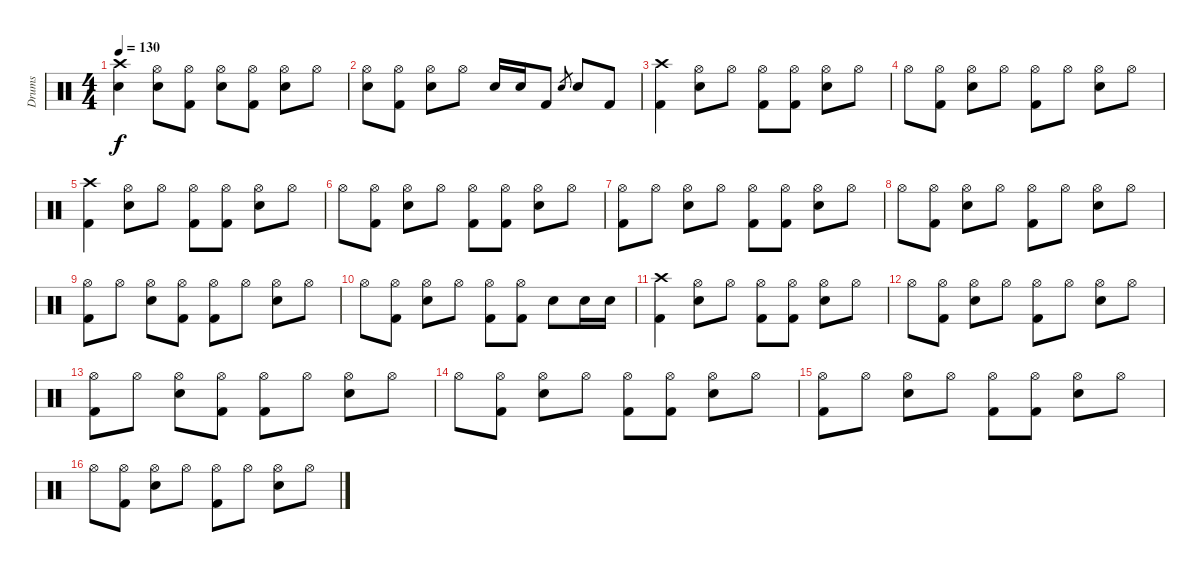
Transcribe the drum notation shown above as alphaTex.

\track ("Drums" "Drums") {instrument percussion}
\staff {score}
\articulation defaults
\ts (4 4)
\tempo 130
\clef neutral
\ks c
("Crash high (hit)" "Electric Snare (hit)").4{dy f} ("Hi-Hat (open)" "Electric Snare (hit)").8 ("Hi-Hat (open)" "Kick (hit) 2").8 ("Hi-Hat (open)" "Electric Snare (hit)").8 ("Hi-Hat (open)" "Kick (hit) 2").8 ("Hi-Hat (open)" "Electric Snare (hit)").8 "Hi-Hat (open)".8 |
("Hi-Hat (open)" "Electric Snare (hit)").8 ("Hi-Hat (open)" "Kick (hit) 2").8 ("Hi-Hat (open)" "Electric Snare (hit)").8 "Hi-Hat (open)".8 "Electric Snare (hit)".16 "Electric Snare (hit)".16 "Kick (hit) 2".8 "Electric Snare (hit)".8{gr} "Electric Snare (hit)".8 "Kick (hit) 2".8 |
("Crash high (hit)" "Kick (hit) 2").4 ("Hi-Hat (open)" "Electric Snare (hit)").8 "Hi-Hat (open)".8 ("Hi-Hat (open)" "Kick (hit) 2").8 ("Hi-Hat (open)" "Kick (hit) 2").8 ("Hi-Hat (open)" "Electric Snare (hit)").8 "Hi-Hat (open)".8 |
"Hi-Hat (open)".8 ("Hi-Hat (open)" "Kick (hit) 2").8 ("Hi-Hat (open)" "Electric Snare (hit)").8 "Hi-Hat (open)".8 ("Hi-Hat (open)" "Kick (hit) 2").8 "Hi-Hat (open)".8 ("Hi-Hat (open)" "Electric Snare (hit)").8 "Hi-Hat (open)".8 |
("Crash high (hit)" "Kick (hit) 2").4 ("Hi-Hat (open)" "Electric Snare (hit)").8 "Hi-Hat (open)".8 ("Hi-Hat (open)" "Kick (hit) 2").8 ("Hi-Hat (open)" "Kick (hit) 2").8 ("Hi-Hat (open)" "Electric Snare (hit)").8 "Hi-Hat (open)".8 |
"Hi-Hat (open)".8 ("Hi-Hat (open)" "Kick (hit) 2").8 ("Hi-Hat (open)" "Electric Snare (hit)").8 "Hi-Hat (open)".8 ("Hi-Hat (open)" "Kick (hit) 2").8 ("Hi-Hat (open)" "Kick (hit) 2").8 ("Hi-Hat (open)" "Electric Snare (hit)").8 "Hi-Hat (open)".8 |
("Hi-Hat (open)" "Kick (hit) 2").8 "Hi-Hat (open)".8 ("Hi-Hat (open)" "Electric Snare (hit)").8 "Hi-Hat (open)".8 ("Hi-Hat (open)" "Kick (hit) 2").8 ("Hi-Hat (open)" "Kick (hit) 2").8 ("Hi-Hat (open)" "Electric Snare (hit)").8 "Hi-Hat (open)".8 |
"Hi-Hat (open)".8 ("Hi-Hat (open)" "Kick (hit) 2").8 ("Hi-Hat (open)" "Electric Snare (hit)").8 "Hi-Hat (open)".8 ("Hi-Hat (open)" "Kick (hit) 2").8 "Hi-Hat (open)".8 ("Hi-Hat (open)" "Electric Snare (hit)").8 "Hi-Hat (open)".8 |
("Hi-Hat (open)" "Kick (hit) 2").8 "Hi-Hat (open)".8 ("Hi-Hat (open)" "Electric Snare (hit)").8 ("Hi-Hat (open)" "Kick (hit) 2").8 ("Hi-Hat (open)" "Kick (hit) 2").8 "Hi-Hat (open)".8 ("Hi-Hat (open)" "Electric Snare (hit)").8 "Hi-Hat (open)".8 |
"Hi-Hat (open)".8 ("Hi-Hat (open)" "Kick (hit) 2").8 ("Hi-Hat (open)" "Electric Snare (hit)").8 "Hi-Hat (open)".8 ("Hi-Hat (open)" "Kick (hit) 2").8 ("Hi-Hat (open)" "Kick (hit) 2").8 "Electric Snare (hit)".8 "Electric Snare (hit)".16 "Electric Snare (hit)".16 |
("Crash high (hit)" "Kick (hit) 2").4 ("Hi-Hat (open)" "Electric Snare (hit)").8 "Hi-Hat (open)".8 ("Hi-Hat (open)" "Kick (hit) 2").8 ("Hi-Hat (open)" "Kick (hit) 2").8 ("Hi-Hat (open)" "Electric Snare (hit)").8 "Hi-Hat (open)".8 |
"Hi-Hat (open)".8 ("Hi-Hat (open)" "Kick (hit) 2").8 ("Hi-Hat (open)" "Electric Snare (hit)").8 "Hi-Hat (open)".8 ("Hi-Hat (open)" "Kick (hit) 2").8 "Hi-Hat (open)".8 ("Hi-Hat (open)" "Electric Snare (hit)").8 "Hi-Hat (open)".8 |
("Hi-Hat (open)" "Kick (hit) 2").8 "Hi-Hat (open)".8 ("Hi-Hat (open)" "Electric Snare (hit)").8 ("Hi-Hat (open)" "Kick (hit) 2").8 ("Hi-Hat (open)" "Kick (hit) 2").8 "Hi-Hat (open)".8 ("Hi-Hat (open)" "Electric Snare (hit)").8 "Hi-Hat (open)".8 |
"Hi-Hat (open)".8 ("Hi-Hat (open)" "Kick (hit) 2").8 ("Hi-Hat (open)" "Electric Snare (hit)").8 "Hi-Hat (open)".8 ("Hi-Hat (open)" "Kick (hit) 2").8 ("Hi-Hat (open)" "Kick (hit) 2").8 ("Hi-Hat (open)" "Electric Snare (hit)").8 "Hi-Hat (open)".8 |
("Hi-Hat (open)" "Kick (hit) 2").8 "Hi-Hat (open)".8 ("Hi-Hat (open)" "Electric Snare (hit)").8 "Hi-Hat (open)".8 ("Hi-Hat (open)" "Kick (hit) 2").8 ("Hi-Hat (open)" "Kick (hit) 2").8 ("Hi-Hat (open)" "Electric Snare (hit)").8 "Hi-Hat (open)".8 |
"Hi-Hat (open)".8 ("Hi-Hat (open)" "Kick (hit) 2").8 ("Hi-Hat (open)" "Electric Snare (hit)").8 "Hi-Hat (open)".8 ("Hi-Hat (open)" "Kick (hit) 2").8 "Hi-Hat (open)".8 ("Hi-Hat (open)" "Electric Snare (hit)").8 "Hi-Hat (open)".8
